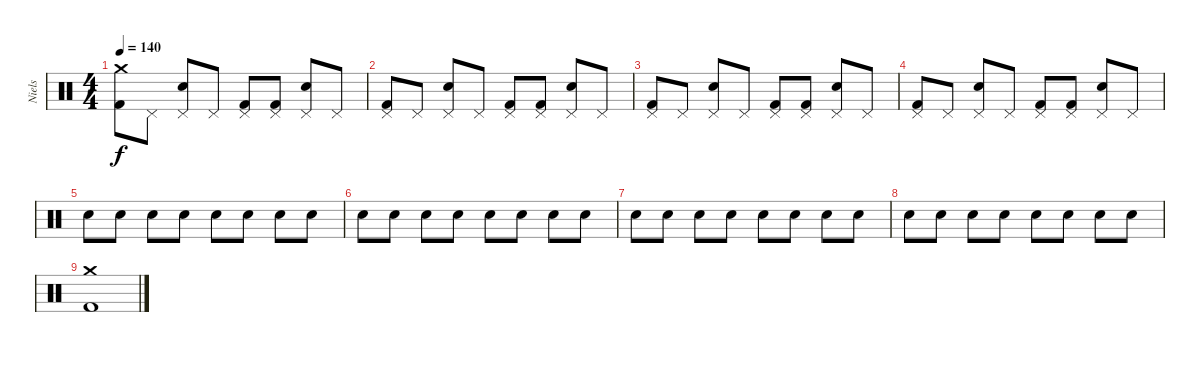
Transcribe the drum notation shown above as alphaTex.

\track ("Niels" "Niels") {instrument percussion}
\staff {score}
\articulation defaults
\ts (4 4)
\tempo 140
\clef neutral
\ks c
("Crash medium (hit)" "Kick (hit) 2").8{dy f} "Pedal Hi-Hat (hit)".8 ("Pedal Hi-Hat (hit)" "Snare (hit) 2").8 "Pedal Hi-Hat (hit)".8 ("Pedal Hi-Hat (hit)" "Kick (hit) 2").8 ("Pedal Hi-Hat (hit)" "Kick (hit) 2").8 ("Pedal Hi-Hat (hit)" "Snare (hit) 2").8 "Pedal Hi-Hat (hit)".8 |
("Pedal Hi-Hat (hit)" "Kick (hit) 2").8 "Pedal Hi-Hat (hit)".8 ("Pedal Hi-Hat (hit)" "Snare (hit) 2").8 "Pedal Hi-Hat (hit)".8 ("Pedal Hi-Hat (hit)" "Kick (hit) 2").8 ("Pedal Hi-Hat (hit)" "Kick (hit) 2").8 ("Pedal Hi-Hat (hit)" "Snare (hit) 2").8 "Pedal Hi-Hat (hit)".8 |
("Pedal Hi-Hat (hit)" "Kick (hit) 2").8 "Pedal Hi-Hat (hit)".8 ("Pedal Hi-Hat (hit)" "Snare (hit) 2").8 "Pedal Hi-Hat (hit)".8 ("Pedal Hi-Hat (hit)" "Kick (hit) 2").8 ("Pedal Hi-Hat (hit)" "Kick (hit) 2").8 ("Pedal Hi-Hat (hit)" "Snare (hit) 2").8 "Pedal Hi-Hat (hit)".8 |
("Pedal Hi-Hat (hit)" "Kick (hit) 2").8 "Pedal Hi-Hat (hit)".8 ("Pedal Hi-Hat (hit)" "Snare (hit) 2").8 "Pedal Hi-Hat (hit)".8 ("Pedal Hi-Hat (hit)" "Kick (hit) 2").8 ("Pedal Hi-Hat (hit)" "Kick (hit) 2").8 ("Pedal Hi-Hat (hit)" "Snare (hit) 2").8 "Pedal Hi-Hat (hit)".8 |
"Snare (hit) 2".8 "Snare (hit) 2".8 "Snare (hit) 2".8 "Snare (hit) 2".8 "Snare (hit) 2".8 "Snare (hit) 2".8 "Snare (hit) 2".8 "Snare (hit) 2".8 |
"Snare (hit) 2".8 "Snare (hit) 2".8 "Snare (hit) 2".8 "Snare (hit) 2".8 "Snare (hit) 2".8 "Snare (hit) 2".8 "Snare (hit) 2".8 "Snare (hit) 2".8 |
"Snare (hit) 2".8 "Snare (hit) 2".8 "Snare (hit) 2".8 "Snare (hit) 2".8 "Snare (hit) 2".8 "Snare (hit) 2".8 "Snare (hit) 2".8 "Snare (hit) 2".8 |
"Snare (hit) 2".8 "Snare (hit) 2".8 "Snare (hit) 2".8 "Snare (hit) 2".8 "Snare (hit) 2".8 "Snare (hit) 2".8 "Snare (hit) 2".8 "Snare (hit) 2".8 |
("Crash medium (hit)" "Kick (hit) 2").1
